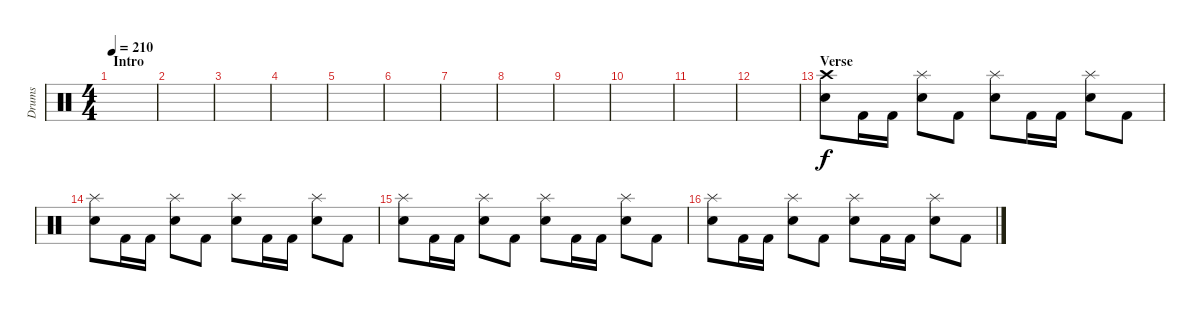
\track ("Drums" "Drums") {instrument percussion}
\staff {score}
\articulation defaults
\ts (4 4)
\section ("" "Intro")
\tempo 210
\clef neutral
\ks c
|
|
|
|
|
|
|
|
|
|
|
|
\section ("" "Verse")
("Crash high (hit)" "Electric Snare (hit)").8 "Kick (hit) 2".16 "Kick (hit) 2".16 ("Splash (hit)" "Electric Snare (hit)").8 "Kick (hit) 2".8 ("Splash (hit)" "Electric Snare (hit)").8 "Kick (hit) 2".16 "Kick (hit) 2".16 ("Splash (hit)" "Electric Snare (hit)").8 "Kick (hit) 2".8 |
("Splash (hit)" "Electric Snare (hit)").8 "Kick (hit) 2".16 "Kick (hit) 2".16 ("Splash (hit)" "Electric Snare (hit)").8 "Kick (hit) 2".8 ("Splash (hit)" "Electric Snare (hit)").8 "Kick (hit) 2".16 "Kick (hit) 2".16 ("Splash (hit)" "Electric Snare (hit)").8 "Kick (hit) 2".8 |
("Splash (hit)" "Electric Snare (hit)").8 "Kick (hit) 2".16 "Kick (hit) 2".16 ("Splash (hit)" "Electric Snare (hit)").8 "Kick (hit) 2".8 ("Splash (hit)" "Electric Snare (hit)").8 "Kick (hit) 2".16 "Kick (hit) 2".16 ("Splash (hit)" "Electric Snare (hit)").8 "Kick (hit) 2".8 |
("Splash (hit)" "Electric Snare (hit)").8 "Kick (hit) 2".16 "Kick (hit) 2".16 ("Splash (hit)" "Electric Snare (hit)").8 "Kick (hit) 2".8 ("Splash (hit)" "Electric Snare (hit)").8 "Kick (hit) 2".16 "Kick (hit) 2".16 ("Splash (hit)" "Electric Snare (hit)").8 "Kick (hit) 2".8
